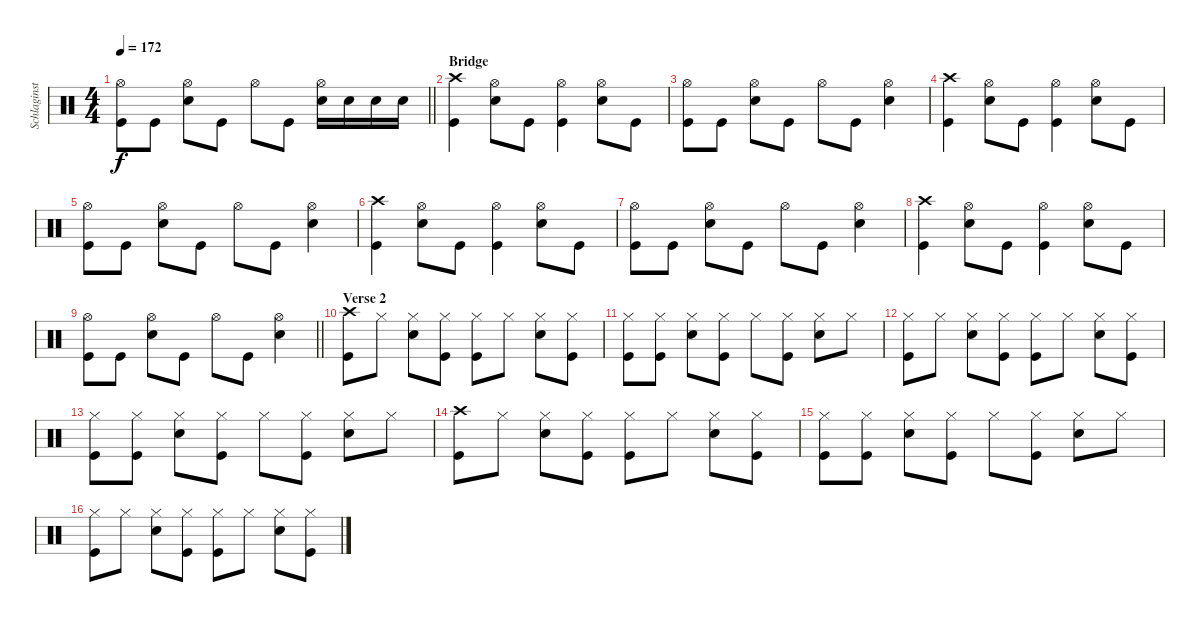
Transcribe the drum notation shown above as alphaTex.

\track ("Schlaginstrumente - Auswahl" "Schlaginst") {instrument percussion}
\staff {score}
\articulation defaults
\ts (4 4)
\tempo 172
\clef neutral
\barLineRight lightlight
\ks c
("Hi-Hat (open)" "Kick (hit)").8{dy f} "Kick (hit)".8 ("Hi-Hat (open)" "Snare (hit) 2").8 "Kick (hit)".8 "Hi-Hat (open)".8 "Kick (hit)".8 ("Hi-Hat (open)" "Snare (hit) 2").16 "Snare (hit) 2".16 "Snare (hit) 2".16 "Snare (hit) 2".16 |
\section ("" "Bridge")
("Crash high (hit)" "Kick (hit)").4 ("Hi-Hat (open)" "Snare (hit) 2").8 "Kick (hit)".8 ("Hi-Hat (open)" "Kick (hit)").4 ("Hi-Hat (open)" "Snare (hit) 2").8 "Kick (hit)".8 |
("Hi-Hat (open)" "Kick (hit)").8 "Kick (hit)".8 ("Hi-Hat (open)" "Snare (hit) 2").8 "Kick (hit)".8 "Hi-Hat (open)".8 "Kick (hit)".8 ("Hi-Hat (open)" "Snare (hit) 2").4 |
("Crash high (hit)" "Kick (hit)").4 ("Hi-Hat (open)" "Snare (hit) 2").8 "Kick (hit)".8 ("Hi-Hat (open)" "Kick (hit)").4 ("Hi-Hat (open)" "Snare (hit) 2").8 "Kick (hit)".8 |
("Hi-Hat (open)" "Kick (hit)").8 "Kick (hit)".8 ("Hi-Hat (open)" "Snare (hit) 2").8 "Kick (hit)".8 "Hi-Hat (open)".8 "Kick (hit)".8 ("Hi-Hat (open)" "Snare (hit) 2").4 |
("Crash high (hit)" "Kick (hit)").4 ("Hi-Hat (open)" "Snare (hit) 2").8 "Kick (hit)".8 ("Hi-Hat (open)" "Kick (hit)").4 ("Hi-Hat (open)" "Snare (hit) 2").8 "Kick (hit)".8 |
("Hi-Hat (open)" "Kick (hit)").8 "Kick (hit)".8 ("Hi-Hat (open)" "Snare (hit) 2").8 "Kick (hit)".8 "Hi-Hat (open)".8 "Kick (hit)".8 ("Hi-Hat (open)" "Snare (hit) 2").4 |
("Crash high (hit)" "Kick (hit)").4 ("Hi-Hat (open)" "Snare (hit) 2").8 "Kick (hit)".8 ("Hi-Hat (open)" "Kick (hit)").4 ("Hi-Hat (open)" "Snare (hit) 2").8 "Kick (hit)".8 |
\barLineRight lightlight
("Hi-Hat (open)" "Kick (hit)").8 "Kick (hit)".8 ("Hi-Hat (open)" "Snare (hit) 2").8 "Kick (hit)".8 "Hi-Hat (open)".8 "Kick (hit)".8 ("Hi-Hat (open)" "Snare (hit) 2").4 |
\section ("" "Verse 2")
("Crash high (hit)" "Kick (hit)").8 "Hi-Hat (closed)".8 ("Hi-Hat (closed)" "Snare (hit) 2").8 ("Hi-Hat (closed)" "Kick (hit)").8 ("Hi-Hat (closed)" "Kick (hit)").8 "Hi-Hat (closed)".8 ("Hi-Hat (closed)" "Snare (hit) 2").8 ("Hi-Hat (closed)" "Kick (hit)").8 |
("Hi-Hat (closed)" "Kick (hit)").8 ("Hi-Hat (closed)" "Kick (hit)").8 ("Hi-Hat (closed)" "Snare (hit) 2").8 ("Hi-Hat (closed)" "Kick (hit)").8 "Hi-Hat (closed)".8 ("Hi-Hat (closed)" "Kick (hit)").8 ("Hi-Hat (closed)" "Snare (hit) 2").8 "Hi-Hat (closed)".8 |
("Hi-Hat (closed)" "Kick (hit)").8 "Hi-Hat (closed)".8 ("Hi-Hat (closed)" "Snare (hit) 2").8 ("Hi-Hat (closed)" "Kick (hit)").8 ("Hi-Hat (closed)" "Kick (hit)").8 "Hi-Hat (closed)".8 ("Hi-Hat (closed)" "Snare (hit) 2").8 ("Hi-Hat (closed)" "Kick (hit)").8 |
("Hi-Hat (closed)" "Kick (hit)").8 ("Hi-Hat (closed)" "Kick (hit)").8 ("Hi-Hat (closed)" "Snare (hit) 2").8 ("Hi-Hat (closed)" "Kick (hit)").8 "Hi-Hat (closed)".8 ("Hi-Hat (closed)" "Kick (hit)").8 ("Hi-Hat (closed)" "Snare (hit) 2").8 "Hi-Hat (closed)".8 |
("Crash high (hit)" "Kick (hit)").8 "Hi-Hat (closed)".8 ("Hi-Hat (closed)" "Snare (hit) 2").8 ("Hi-Hat (closed)" "Kick (hit)").8 ("Hi-Hat (closed)" "Kick (hit)").8 "Hi-Hat (closed)".8 ("Hi-Hat (closed)" "Snare (hit) 2").8 ("Hi-Hat (closed)" "Kick (hit)").8 |
("Hi-Hat (closed)" "Kick (hit)").8 ("Hi-Hat (closed)" "Kick (hit)").8 ("Hi-Hat (closed)" "Snare (hit) 2").8 ("Hi-Hat (closed)" "Kick (hit)").8 "Hi-Hat (closed)".8 ("Hi-Hat (closed)" "Kick (hit)").8 ("Hi-Hat (closed)" "Snare (hit) 2").8 "Hi-Hat (closed)".8 |
("Hi-Hat (closed)" "Kick (hit)").8 "Hi-Hat (closed)".8 ("Hi-Hat (closed)" "Snare (hit) 2").8 ("Hi-Hat (closed)" "Kick (hit)").8 ("Hi-Hat (closed)" "Kick (hit)").8 "Hi-Hat (closed)".8 ("Hi-Hat (closed)" "Snare (hit) 2").8 ("Hi-Hat (closed)" "Kick (hit)").8
